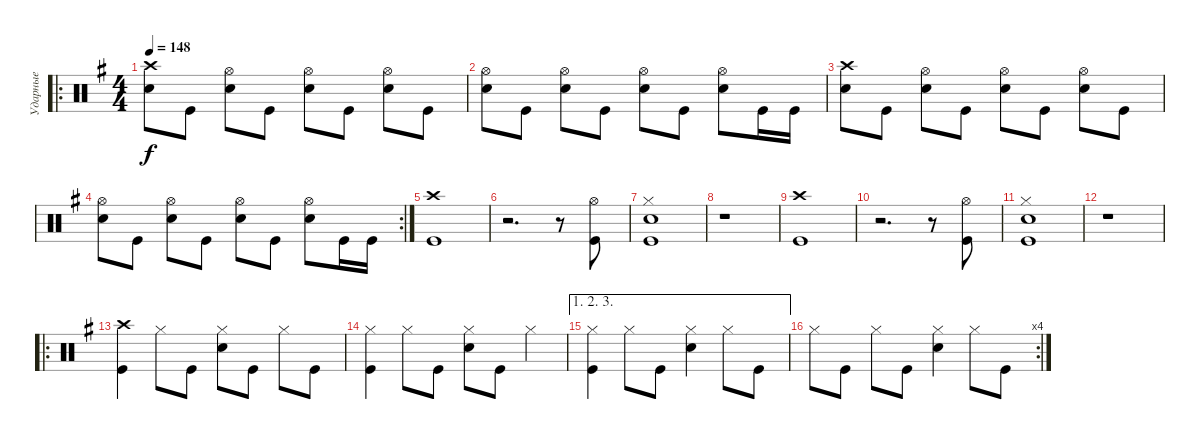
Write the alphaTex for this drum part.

\track ("Ударные" "Ударные") {instrument percussion}
\staff {score}
\articulation defaults
\ro
\ts (4 4)
\tempo 148
\clef neutral
\ks g
("Snare (hit) 2" "Crash high (hit)").8{dy f} "Kick (hit)".8 ("Snare (hit) 2" "Hi-Hat (open)").8 "Kick (hit)".8 ("Snare (hit) 2" "Hi-Hat (open)").8 "Kick (hit)".8 ("Snare (hit) 2" "Hi-Hat (open)").8 "Kick (hit)".8 |
("Snare (hit) 2" "Hi-Hat (open)").8 "Kick (hit)".8 ("Snare (hit) 2" "Hi-Hat (open)").8 "Kick (hit)".8 ("Snare (hit) 2" "Hi-Hat (open)").8 "Kick (hit)".8 ("Snare (hit) 2" "Hi-Hat (open)").8 "Kick (hit)".16 "Kick (hit)".16 |
("Snare (hit) 2" "Crash high (hit)").8 "Kick (hit)".8 ("Snare (hit) 2" "Hi-Hat (open)").8 "Kick (hit)".8 ("Snare (hit) 2" "Hi-Hat (open)").8 "Kick (hit)".8 ("Snare (hit) 2" "Hi-Hat (open)").8 "Kick (hit)".8 |
\rc 2
("Snare (hit) 2" "Hi-Hat (open)").8 "Kick (hit)".8 ("Snare (hit) 2" "Hi-Hat (open)").8 "Kick (hit)".8 ("Snare (hit) 2" "Hi-Hat (open)").8 "Kick (hit)".8 ("Snare (hit) 2" "Hi-Hat (open)").8 "Kick (hit)".16 "Kick (hit)".16 |
("Kick (hit)" "Crash high (hit)").1 |
r.2{d} r.8 ("Kick (hit)" "Hi-Hat (open)").8 |
("Hi-Hat (closed)" "Snare (hit) 2" "Kick (hit)").1 |
r.1 |
("Kick (hit)" "Crash high (hit)").1 |
r.2{d} r.8 ("Kick (hit)" "Hi-Hat (open)").8 |
("Hi-Hat (closed)" "Snare (hit) 2" "Kick (hit)").1 |
r.1 |
\ro
("Crash high (hit)" "Kick (hit)").4 "Hi-Hat (closed)".8 "Kick (hit)".8 ("Hi-Hat (closed)" "Snare (hit) 2").8 "Kick (hit)".8 "Hi-Hat (closed)".8 "Kick (hit)".8 |
("Hi-Hat (closed)" "Kick (hit)").4 "Hi-Hat (closed)".8 "Kick (hit)".8 ("Snare (hit) 2" "Hi-Hat (closed)").8 "Kick (hit)".8 "Hi-Hat (closed)".4 |
\ae (1 2 3)
("Kick (hit)" "Hi-Hat (closed)").4 "Hi-Hat (closed)".8 "Kick (hit)".8 ("Snare (hit) 2" "Hi-Hat (closed)").4 "Hi-Hat (closed)".8 "Kick (hit)".8 |
\rc 4 "Hi-Hat (closed)".8 "Kick (hit)".8 "Hi-Hat (closed)".8 "Kick (hit)".8
("Snare (hit) 2" "Hi-Hat (closed)").4 "Hi-Hat (closed)".8 "Kick (hit)".8
